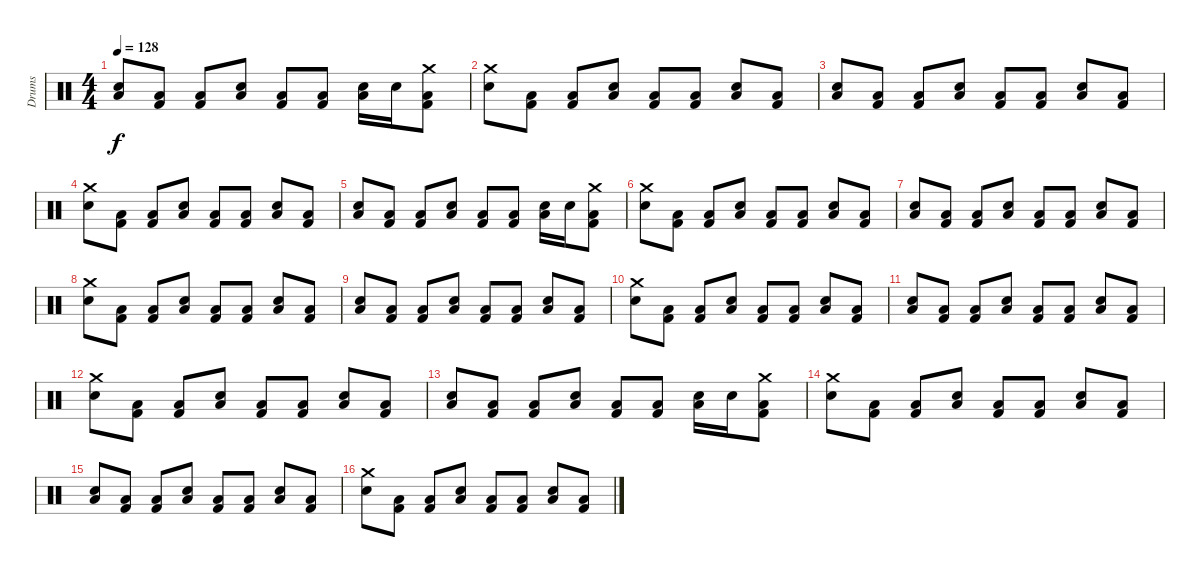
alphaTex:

\track ("Drums" "Drums") {instrument percussion}
\staff {score}
\articulation defaults
\ts (4 4)
\tempo 128
\clef neutral
\ks c
("Snare (hit) 2" "Low Floor Tom (hit)").8{dy f} ("Low Floor Tom (hit)" "Kick (hit) 2").8 ("Low Floor Tom (hit)" "Kick (hit) 2").8 ("Snare (hit) 2" "Low Floor Tom (hit)").8 ("Low Floor Tom (hit)" "Kick (hit) 2").8 ("Low Floor Tom (hit)" "Kick (hit) 2").8 ("Snare (hit) 2" "Low Floor Tom (hit)").16 "Snare (hit) 2".16 ("Crash medium (hit)" "Low Floor Tom (hit)" "Kick (hit) 2").8 |
("Crash medium (hit)" "Snare (hit) 2").8 ("Low Floor Tom (hit)" "Kick (hit) 2").8 ("Low Floor Tom (hit)" "Kick (hit) 2").8 ("Snare (hit) 2" "Low Floor Tom (hit)").8 ("Low Floor Tom (hit)" "Kick (hit) 2").8 ("Low Floor Tom (hit)" "Kick (hit) 2").8 ("Snare (hit) 2" "Low Floor Tom (hit)").8 ("Low Floor Tom (hit)" "Kick (hit) 2").8 |
("Snare (hit) 2" "Low Floor Tom (hit)").8 ("Low Floor Tom (hit)" "Kick (hit) 2").8 ("Low Floor Tom (hit)" "Kick (hit) 2").8 ("Snare (hit) 2" "Low Floor Tom (hit)").8 ("Low Floor Tom (hit)" "Kick (hit) 2").8 ("Low Floor Tom (hit)" "Kick (hit) 2").8 ("Snare (hit) 2" "Low Floor Tom (hit)").8 ("Low Floor Tom (hit)" "Kick (hit) 2").8 |
("Crash medium (hit)" "Snare (hit) 2").8 ("Low Floor Tom (hit)" "Kick (hit) 2").8 ("Low Floor Tom (hit)" "Kick (hit) 2").8 ("Snare (hit) 2" "Low Floor Tom (hit)").8 ("Low Floor Tom (hit)" "Kick (hit) 2").8 ("Low Floor Tom (hit)" "Kick (hit) 2").8 ("Snare (hit) 2" "Low Floor Tom (hit)").8 ("Low Floor Tom (hit)" "Kick (hit) 2").8 |
("Snare (hit) 2" "Low Floor Tom (hit)").8 ("Low Floor Tom (hit)" "Kick (hit) 2").8 ("Low Floor Tom (hit)" "Kick (hit) 2").8 ("Snare (hit) 2" "Low Floor Tom (hit)").8 ("Low Floor Tom (hit)" "Kick (hit) 2").8 ("Low Floor Tom (hit)" "Kick (hit) 2").8 ("Snare (hit) 2" "Low Floor Tom (hit)").16 "Snare (hit) 2".16 ("Crash medium (hit)" "Low Floor Tom (hit)" "Kick (hit) 2").8 |
("Crash medium (hit)" "Snare (hit) 2").8 ("Low Floor Tom (hit)" "Kick (hit) 2").8 ("Low Floor Tom (hit)" "Kick (hit) 2").8 ("Snare (hit) 2" "Low Floor Tom (hit)").8 ("Low Floor Tom (hit)" "Kick (hit) 2").8 ("Low Floor Tom (hit)" "Kick (hit) 2").8 ("Snare (hit) 2" "Low Floor Tom (hit)").8 ("Low Floor Tom (hit)" "Kick (hit) 2").8 |
("Snare (hit) 2" "Low Floor Tom (hit)").8 ("Low Floor Tom (hit)" "Kick (hit) 2").8 ("Low Floor Tom (hit)" "Kick (hit) 2").8 ("Snare (hit) 2" "Low Floor Tom (hit)").8 ("Low Floor Tom (hit)" "Kick (hit) 2").8 ("Low Floor Tom (hit)" "Kick (hit) 2").8 ("Snare (hit) 2" "Low Floor Tom (hit)").8 ("Low Floor Tom (hit)" "Kick (hit) 2").8 |
("Crash medium (hit)" "Snare (hit) 2").8 ("Low Floor Tom (hit)" "Kick (hit) 2").8 ("Low Floor Tom (hit)" "Kick (hit) 2").8 ("Snare (hit) 2" "Low Floor Tom (hit)").8 ("Low Floor Tom (hit)" "Kick (hit) 2").8 ("Low Floor Tom (hit)" "Kick (hit) 2").8 ("Snare (hit) 2" "Low Floor Tom (hit)").8 ("Low Floor Tom (hit)" "Kick (hit) 2").8 |
("Snare (hit) 2" "Low Floor Tom (hit)").8 ("Low Floor Tom (hit)" "Kick (hit) 2").8 ("Low Floor Tom (hit)" "Kick (hit) 2").8 ("Snare (hit) 2" "Low Floor Tom (hit)").8 ("Low Floor Tom (hit)" "Kick (hit) 2").8 ("Low Floor Tom (hit)" "Kick (hit) 2").8 ("Snare (hit) 2" "Low Floor Tom (hit)").8 ("Low Floor Tom (hit)" "Kick (hit) 2").8 |
("Crash medium (hit)" "Snare (hit) 2").8 ("Low Floor Tom (hit)" "Kick (hit) 2").8 ("Low Floor Tom (hit)" "Kick (hit) 2").8 ("Snare (hit) 2" "Low Floor Tom (hit)").8 ("Low Floor Tom (hit)" "Kick (hit) 2").8 ("Low Floor Tom (hit)" "Kick (hit) 2").8 ("Snare (hit) 2" "Low Floor Tom (hit)").8 ("Low Floor Tom (hit)" "Kick (hit) 2").8 |
("Snare (hit) 2" "Low Floor Tom (hit)").8 ("Low Floor Tom (hit)" "Kick (hit) 2").8 ("Low Floor Tom (hit)" "Kick (hit) 2").8 ("Snare (hit) 2" "Low Floor Tom (hit)").8 ("Low Floor Tom (hit)" "Kick (hit) 2").8 ("Low Floor Tom (hit)" "Kick (hit) 2").8 ("Snare (hit) 2" "Low Floor Tom (hit)").8 ("Low Floor Tom (hit)" "Kick (hit) 2").8 |
("Crash medium (hit)" "Snare (hit) 2").8 ("Low Floor Tom (hit)" "Kick (hit) 2").8 ("Low Floor Tom (hit)" "Kick (hit) 2").8 ("Snare (hit) 2" "Low Floor Tom (hit)").8 ("Low Floor Tom (hit)" "Kick (hit) 2").8 ("Low Floor Tom (hit)" "Kick (hit) 2").8 ("Snare (hit) 2" "Low Floor Tom (hit)").8 ("Low Floor Tom (hit)" "Kick (hit) 2").8 |
("Snare (hit) 2" "Low Floor Tom (hit)").8 ("Low Floor Tom (hit)" "Kick (hit) 2").8 ("Low Floor Tom (hit)" "Kick (hit) 2").8 ("Snare (hit) 2" "Low Floor Tom (hit)").8 ("Low Floor Tom (hit)" "Kick (hit) 2").8 ("Low Floor Tom (hit)" "Kick (hit) 2").8 ("Snare (hit) 2" "Low Floor Tom (hit)").16 "Snare (hit) 2".16 ("Crash medium (hit)" "Low Floor Tom (hit)" "Kick (hit) 2").8 |
("Crash medium (hit)" "Snare (hit) 2").8 ("Low Floor Tom (hit)" "Kick (hit) 2").8 ("Low Floor Tom (hit)" "Kick (hit) 2").8 ("Snare (hit) 2" "Low Floor Tom (hit)").8 ("Low Floor Tom (hit)" "Kick (hit) 2").8 ("Low Floor Tom (hit)" "Kick (hit) 2").8 ("Snare (hit) 2" "Low Floor Tom (hit)").8 ("Low Floor Tom (hit)" "Kick (hit) 2").8 |
("Snare (hit) 2" "Low Floor Tom (hit)").8 ("Low Floor Tom (hit)" "Kick (hit) 2").8 ("Low Floor Tom (hit)" "Kick (hit) 2").8 ("Snare (hit) 2" "Low Floor Tom (hit)").8 ("Low Floor Tom (hit)" "Kick (hit) 2").8 ("Low Floor Tom (hit)" "Kick (hit) 2").8 ("Snare (hit) 2" "Low Floor Tom (hit)").8 ("Low Floor Tom (hit)" "Kick (hit) 2").8 |
("Crash medium (hit)" "Snare (hit) 2").8 ("Low Floor Tom (hit)" "Kick (hit) 2").8 ("Low Floor Tom (hit)" "Kick (hit) 2").8 ("Snare (hit) 2" "Low Floor Tom (hit)").8 ("Low Floor Tom (hit)" "Kick (hit) 2").8 ("Low Floor Tom (hit)" "Kick (hit) 2").8 ("Snare (hit) 2" "Low Floor Tom (hit)").8 ("Low Floor Tom (hit)" "Kick (hit) 2").8
